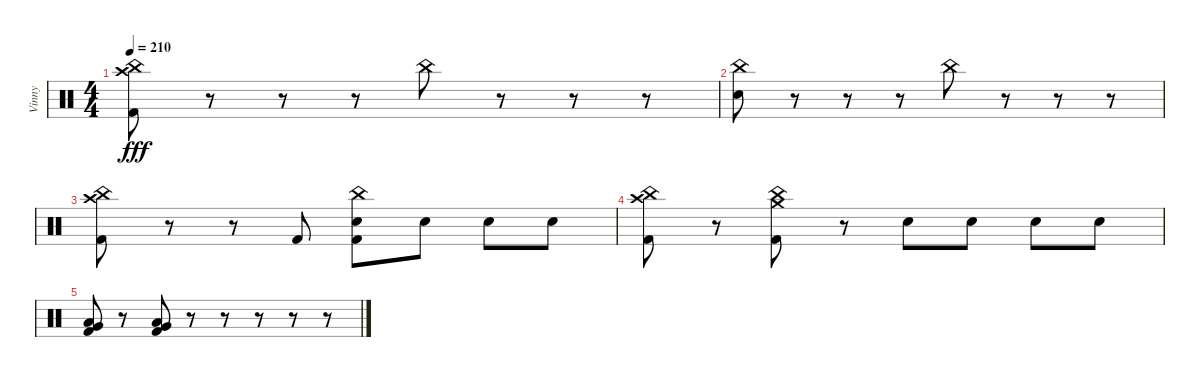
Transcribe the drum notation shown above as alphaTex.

\track ("Vinny" "Vinny") {instrument percussion}
\staff {score}
\articulation defaults
\ts (4 4)
\tempo 210
\clef neutral
\ks c
("Crash high (hit)" "China (hit)" "Kick (hit) 2").8{dy fff} r.8 r.8 r.8 "China (hit)".8 r.8 r.8 r.8 |
("China (hit)" "Electric Snare (hit)").8 r.8 r.8 r.8 "China (hit)".8 r.8 r.8 r.8 |
("Crash high (hit)" "China (hit)" "Kick (hit) 2").8 r.8 r.8 "Kick (hit) 2".8 ("China (hit)" "Electric Snare (hit)" "Kick (hit) 2").8 "Electric Snare (hit)".8 "Electric Snare (hit)".8 "Electric Snare (hit)".8 |
("Crash high (hit)" "China (hit)" "Kick (hit) 2").8 r.8 ("Crash medium (hit)" "China (hit)" "Kick (hit) 2").8 r.8 "Electric Snare (hit)".8 "Electric Snare (hit)".8 "Electric Snare (hit)".8 "Electric Snare (hit)".8 |
("Very Low Tom (hit)" "Low Floor Tom (hit)" "Kick (hit) 2").8 r.8 ("Very Low Tom (hit)" "Low Floor Tom (hit)" "Kick (hit) 2").8 r.8 r.8 r.8 r.8 r.8
